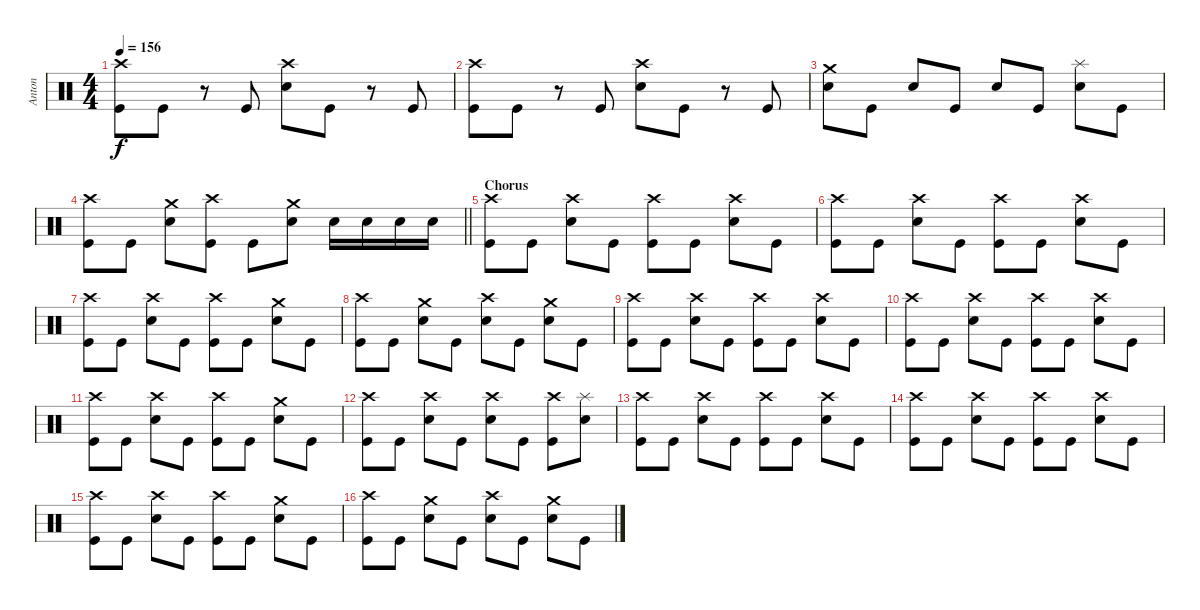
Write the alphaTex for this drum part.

\track ("Anton " "Anton ") {instrument percussion}
\staff
\articulation defaults
\ts (4 4)
\tempo 156
\clef neutral
\ks c
("Crash high (hit)" "Kick (hit)").8{dy f} "Kick (hit)".8 r.8 "Kick (hit)".8 ("Crash high (hit)" "Snare (hit) 2").8 "Kick (hit)".8 r.8 "Kick (hit)".8 |
("Crash high (hit)" "Kick (hit)").8 "Kick (hit)".8 r.8 "Kick (hit)".8 ("Crash high (hit)" "Snare (hit) 2").8 "Kick (hit)".8 r.8 "Kick (hit)".8 |
("Snare (hit) 2" "Crash medium (hit)").8 "Kick (hit)".8 "Snare (hit) 2".8 "Kick (hit)".8 "Snare (hit) 2".8 "Kick (hit)".8 ("Snare (hit) 2" "Splash (hit)").8 "Kick (hit)".8 |
\barLineRight lightlight
("Crash high (hit)" "Kick (hit)").8 "Kick (hit)".8 ("Snare (hit) 2" "Crash medium (hit)").8 ("Kick (hit)" "Crash high (hit)").8 "Kick (hit)".8 ("Snare (hit) 2" "Crash medium (hit)").8 "Snare (hit) 2".16 "Snare (hit) 2".16 "Snare (hit) 2".16 "Snare (hit) 2".16 |
\section ("" "Chorus")
("Crash high (hit)" "Kick (hit)").8 "Kick (hit)".8 ("Crash high (hit)" "Snare (hit) 2").8 "Kick (hit)".8 ("Crash high (hit)" "Kick (hit)").8 "Kick (hit)".8 ("Crash high (hit)" "Snare (hit) 2").8 "Kick (hit)".8 |
("Crash high (hit)" "Kick (hit)").8 "Kick (hit)".8 ("Crash high (hit)" "Snare (hit) 2").8 "Kick (hit)".8 ("Crash high (hit)" "Kick (hit)").8 "Kick (hit)".8 ("Crash high (hit)" "Snare (hit) 2").8 "Kick (hit)".8 |
("Crash high (hit)" "Kick (hit)").8 "Kick (hit)".8 ("Crash high (hit)" "Snare (hit) 2").8 "Kick (hit)".8 ("Crash high (hit)" "Kick (hit)").8 "Kick (hit)".8 ("Snare (hit) 2" "Crash medium (hit)").8 "Kick (hit)".8 |
("Crash high (hit)" "Kick (hit)").8 "Kick (hit)".8 ("Snare (hit) 2" "Crash medium (hit)").8 "Kick (hit)".8 ("Crash high (hit)" "Snare (hit) 2").8 "Kick (hit)".8 ("Snare (hit) 2" "Crash medium (hit)").8 "Kick (hit)".8 |
("Crash high (hit)" "Kick (hit)").8 "Kick (hit)".8 ("Crash high (hit)" "Snare (hit) 2").8 "Kick (hit)".8 ("Crash high (hit)" "Kick (hit)").8 "Kick (hit)".8 ("Crash high (hit)" "Snare (hit) 2").8 "Kick (hit)".8 |
("Crash high (hit)" "Kick (hit)").8 "Kick (hit)".8 ("Crash high (hit)" "Snare (hit) 2").8 "Kick (hit)".8 ("Crash high (hit)" "Kick (hit)").8 "Kick (hit)".8 ("Crash high (hit)" "Snare (hit) 2").8 "Kick (hit)".8 |
("Crash high (hit)" "Kick (hit)").8 "Kick (hit)".8 ("Crash high (hit)" "Snare (hit) 2").8 "Kick (hit)".8 ("Crash high (hit)" "Kick (hit)").8 "Kick (hit)".8 ("Snare (hit) 2" "Crash medium (hit)").8 "Kick (hit)".8 |
("Crash high (hit)" "Kick (hit)").8 "Kick (hit)".8 ("Crash high (hit)" "Snare (hit) 2").8 "Kick (hit)".8 ("Crash high (hit)" "Snare (hit) 2").8 "Kick (hit)".8 ("Crash high (hit)" "Kick (hit)").8 ("Snare (hit) 2" "Splash (hit)").8 |
("Crash high (hit)" "Kick (hit)").8 "Kick (hit)".8 ("Crash high (hit)" "Snare (hit) 2").8 "Kick (hit)".8 ("Crash high (hit)" "Kick (hit)").8 "Kick (hit)".8 ("Crash high (hit)" "Snare (hit) 2").8 "Kick (hit)".8 |
("Crash high (hit)" "Kick (hit)").8 "Kick (hit)".8 ("Crash high (hit)" "Snare (hit) 2").8 "Kick (hit)".8 ("Crash high (hit)" "Kick (hit)").8 "Kick (hit)".8 ("Crash high (hit)" "Snare (hit) 2").8 "Kick (hit)".8 |
("Crash high (hit)" "Kick (hit)").8 "Kick (hit)".8 ("Crash high (hit)" "Snare (hit) 2").8 "Kick (hit)".8 ("Crash high (hit)" "Kick (hit)").8 "Kick (hit)".8 ("Snare (hit) 2" "Crash medium (hit)").8 "Kick (hit)".8 |
("Crash high (hit)" "Kick (hit)").8 "Kick (hit)".8 ("Snare (hit) 2" "Crash medium (hit)").8 "Kick (hit)".8 ("Crash high (hit)" "Snare (hit) 2").8 "Kick (hit)".8 ("Snare (hit) 2" "Crash medium (hit)").8 "Kick (hit)".8
